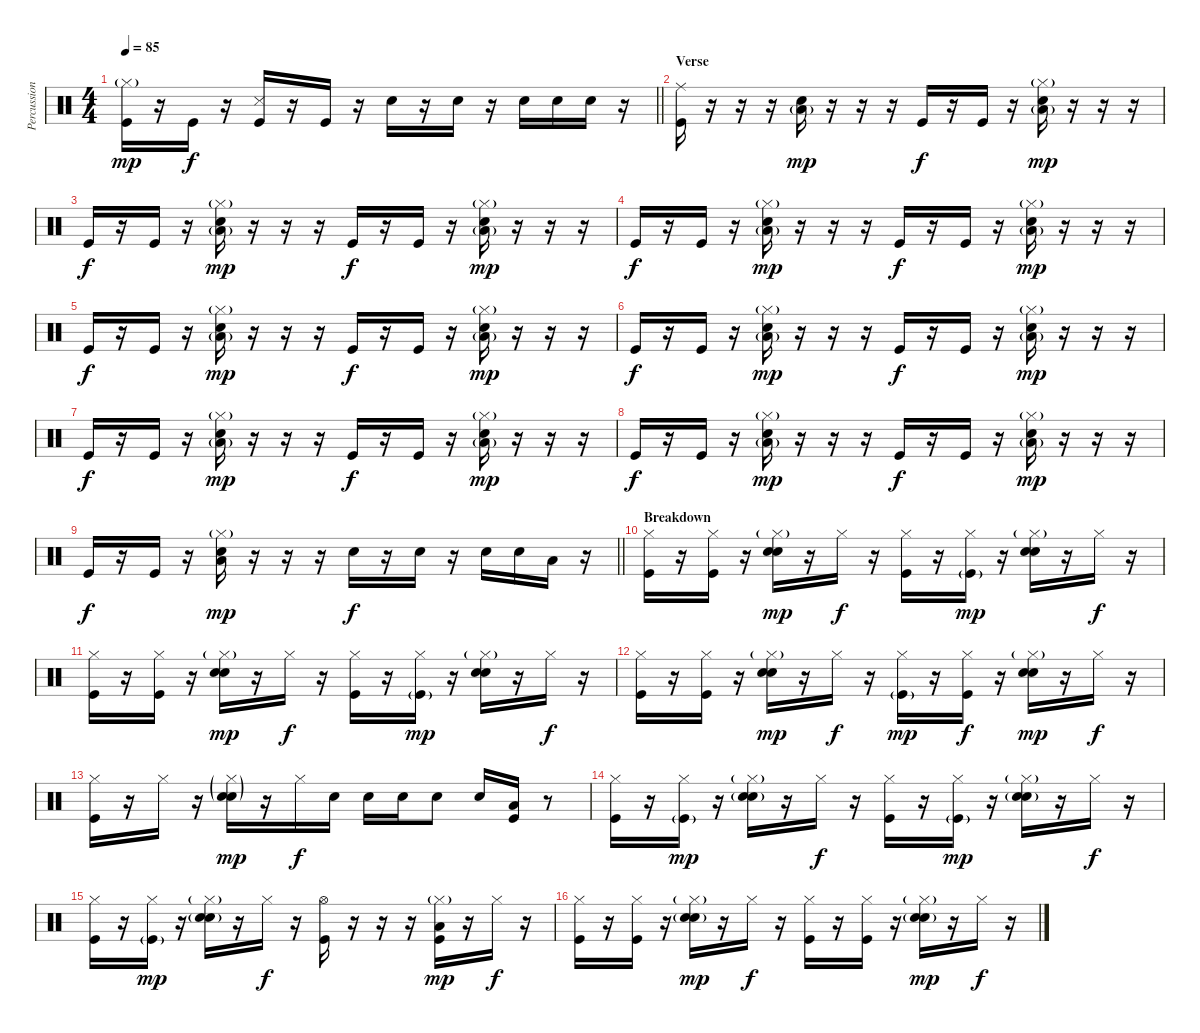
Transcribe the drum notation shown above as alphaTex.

\track ("Percussion" "Percussion") {instrument percussion}
\staff {score}
\articulation defaults
\ts (4 4)
\tempo 85
\clef neutral
\barLineRight lightlight
\ks c
("Hi-Hat (closed)"{g} "Kick (hit)").16{dy mp} r.16 "Kick (hit)".16{dy f} r.16 ("Snare (side stick) 3" "Kick (hit)").16 r.16 "Kick (hit)".16 r.16 "Snare (hit) 2".16 r.16 "Snare (hit) 2".16 r.16 "Snare (hit) 2".16 "Snare (hit) 2".16 "Snare (hit) 2".16 r.16 |
\section ("" "Verse")
("Ride (middle)" "Kick (hit)").16 r.16 r.16 r.16 ("Low Tom (hit)"{g} "Snare (hit) 2").16{dy mp} r.16 r.16 r.16 "Kick (hit)".16{dy f} r.16 "Kick (hit)".16 r.16 ("Hi-Hat (closed)"{g} "Low Tom (hit)"{g} "Snare (hit) 2").16{dy mp} r.16 r.16 r.16 |
"Kick (hit)".16{dy f} r.16 "Kick (hit)".16 r.16 ("Hi-Hat (closed)"{g} "Low Tom (hit)"{g} "Snare (hit) 2").16{dy mp} r.16 r.16 r.16 "Kick (hit)".16{dy f} r.16 "Kick (hit)".16 r.16 ("Hi-Hat (closed)"{g} "Low Tom (hit)"{g} "Snare (hit) 2").16{dy mp} r.16 r.16 r.16 |
"Kick (hit)".16{dy f} r.16 "Kick (hit)".16 r.16 ("Hi-Hat (closed)"{g} "Low Tom (hit)"{g} "Snare (hit) 2").16{dy mp} r.16 r.16 r.16 "Kick (hit)".16{dy f} r.16 "Kick (hit)".16 r.16 ("Hi-Hat (closed)"{g} "Low Tom (hit)"{g} "Snare (hit) 2").16{dy mp} r.16 r.16 r.16 |
"Kick (hit)".16{dy f} r.16 "Kick (hit)".16 r.16 ("Hi-Hat (closed)"{g} "Low Tom (hit)"{g} "Snare (hit) 2").16{dy mp} r.16 r.16 r.16 "Kick (hit)".16{dy f} r.16 "Kick (hit)".16 r.16 ("Hi-Hat (closed)"{g} "Low Tom (hit)"{g} "Snare (hit) 2").16{dy mp} r.16 r.16 r.16 |
"Kick (hit)".16{dy f} r.16 "Kick (hit)".16 r.16 ("Hi-Hat (closed)"{g} "Low Tom (hit)"{g} "Snare (hit) 2").16{dy mp} r.16 r.16 r.16 "Kick (hit)".16{dy f} r.16 "Kick (hit)".16 r.16 ("Hi-Hat (closed)"{g} "Low Tom (hit)"{g} "Snare (hit) 2").16{dy mp} r.16 r.16 r.16 |
"Kick (hit)".16{dy f} r.16 "Kick (hit)".16 r.16 ("Hi-Hat (closed)"{g} "Low Tom (hit)"{g} "Snare (hit) 2").16{dy mp} r.16 r.16 r.16 "Kick (hit)".16{dy f} r.16 "Kick (hit)".16 r.16 ("Hi-Hat (closed)"{g} "Low Tom (hit)"{g} "Snare (hit) 2").16{dy mp} r.16 r.16 r.16 |
"Kick (hit)".16{dy f} r.16 "Kick (hit)".16 r.16 ("Hi-Hat (closed)"{g} "Low Tom (hit)"{g} "Snare (hit) 2").16{dy mp} r.16 r.16 r.16 "Kick (hit)".16{dy f} r.16 "Kick (hit)".16 r.16 ("Hi-Hat (closed)"{g} "Low Tom (hit)"{g} "Snare (hit) 2").16{dy mp} r.16 r.16 r.16 |
\barLineRight lightlight "Kick (hit)".16{dy f}
r.16 "Kick (hit)".16 r.16 ("Hi-Hat (closed)"{g} "Low Tom (hit)" "Snare (hit) 2").16{dy mp} r.16 r.16 r.16 "Snare (hit) 2".16{dy f} r.16 "Snare (hit) 2".16 r.16 "Snare (hit) 2".16 "Snare (hit) 2".16 "Low Tom (hit)".16 r.16 |
\section ("" "Breakdown")
("Hi-Hat (closed)" "Kick (hit)").16 r.16 ("Hi-Hat (closed)" "Kick (hit)").16 r.16 ("Hi-Hat (closed)"{g} "Hand Clap (hit)" "Snare (hit) 2").16{dy mp} r.16 "Hi-Hat (closed)".16{dy f} r.16 ("Hi-Hat (closed)" "Kick (hit)").16 r.16 ("Hi-Hat (closed)" "Kick (hit)"{g}).16{dy mp} r.16 ("Hi-Hat (closed)"{g} "Hand Clap (hit)" "Snare (hit) 2").16 r.16 "Hi-Hat (closed)".16{dy f} r.16 |
("Hi-Hat (closed)" "Kick (hit)").16 r.16 ("Hi-Hat (closed)" "Kick (hit)").16 r.16 ("Hi-Hat (closed)"{g} "Hand Clap (hit)" "Snare (hit) 2").16{dy mp} r.16 "Hi-Hat (closed)".16{dy f} r.16 ("Hi-Hat (closed)" "Kick (hit)").16 r.16 ("Hi-Hat (closed)" "Kick (hit)"{g}).16{dy mp} r.16 ("Hi-Hat (closed)"{g} "Hand Clap (hit)" "Snare (hit) 2").16 r.16 "Hi-Hat (closed)".16{dy f} r.16 |
("Hi-Hat (closed)" "Kick (hit)").16 r.16 ("Hi-Hat (closed)" "Kick (hit)").16 r.16 ("Hi-Hat (closed)"{g} "Hand Clap (hit)" "Snare (hit) 2").16{dy mp} r.16 "Hi-Hat (closed)".16{dy f} r.16 ("Hi-Hat (closed)" "Kick (hit)"{g}).16{dy mp} r.16 ("Hi-Hat (closed)" "Kick (hit)").16{dy f} r.16 ("Hi-Hat (closed)"{g} "Hand Clap (hit)" "Snare (hit) 2").16{dy mp} r.16 "Hi-Hat (closed)".16{dy f} r.16 |
("Hi-Hat (closed)" "Kick (hit)").16 r.16 "Hi-Hat (closed)".16 r.16 ("Hi-Hat (closed)"{g} "Hand Clap (hit)"{g} "Snare (hit) 2").16{dy mp} r.16 "Hi-Hat (closed)".16{dy f} "Snare (hit) 2".16 "Snare (hit) 2".16 "Snare (hit) 2".16 "Snare (hit) 2".8 "Snare (hit) 2".16 ("Low Tom (hit)" "Kick (hit)").16 r.8 |
("Hi-Hat (closed)" "Kick (hit)").16 r.16 ("Hi-Hat (closed)" "Kick (hit)"{g}).16{dy mp} r.16 ("Hi-Hat (closed)"{g} "Hand Clap (hit)" "Snare (hit) 2"{g}).16 r.16 "Hi-Hat (closed)".16{dy f} r.16 ("Hi-Hat (closed)" "Kick (hit)").16 r.16 ("Hi-Hat (closed)" "Kick (hit)"{g}).16{dy mp} r.16 ("Hi-Hat (closed)"{g} "Hand Clap (hit)" "Snare (hit) 2"{g}).16 r.16 "Hi-Hat (closed)".16{dy f} r.16 |
("Hi-Hat (closed)" "Kick (hit)").16 r.16 ("Hi-Hat (closed)" "Kick (hit)"{g}).16{dy mp} r.16 ("Hi-Hat (closed)"{g} "Hand Clap (hit)" "Snare (hit) 2"{g}).16 r.16 "Hi-Hat (closed)".16{dy f} r.16 ("Hi-Hat (open)" "Kick (hit)").16 r.16 r.16 r.16 ("Hi-Hat (closed)"{g} "Low Tom (hit)" "Kick (hit)").16{dy mp} r.16 "Hi-Hat (closed)".16{dy f} r.16 |
("Hi-Hat (closed)" "Kick (hit)").16 r.16 ("Hi-Hat (closed)" "Kick (hit)").16 r.16 ("Hi-Hat (closed)"{g} "Hand Clap (hit)" "Snare (hit) 2"{g}).16{dy mp} r.16 "Hi-Hat (closed)".16{dy f} r.16 ("Hi-Hat (closed)" "Kick (hit)").16 r.16 ("Hi-Hat (closed)" "Kick (hit)").16 r.16 ("Hi-Hat (closed)"{g} "Hand Clap (hit)" "Snare (hit) 2"{g}).16{dy mp} r.16 "Hi-Hat (closed)".16{dy f} r.16
